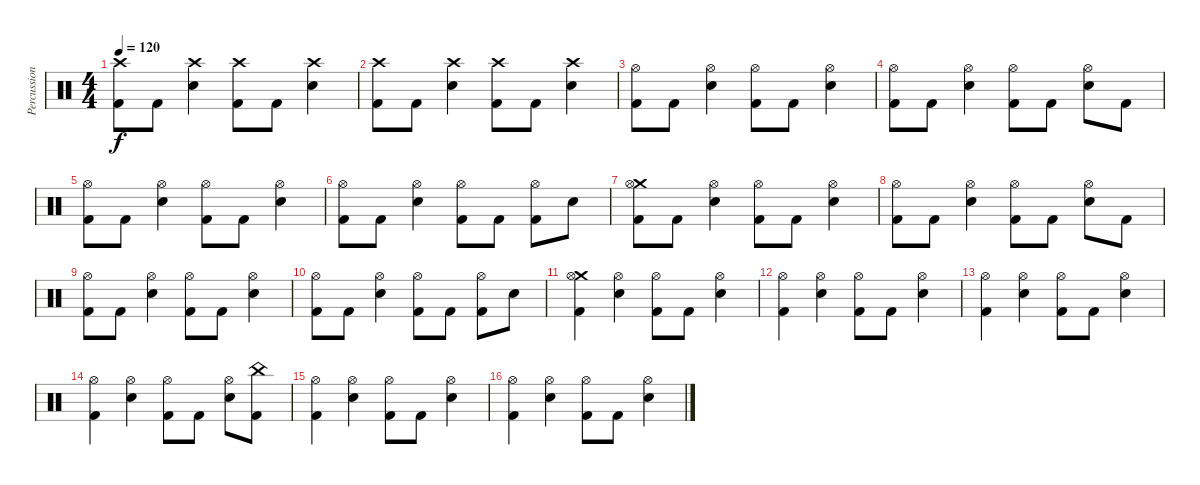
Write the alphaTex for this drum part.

\track ("Percussion" "Percussion") {instrument percussion}
\staff {score}
\articulation defaults
\ts (4 4)
\tempo 120
\clef neutral
\ks c
("Crash high (hit)" "Kick (hit) 2").8{dy f} "Kick (hit) 2".8 ("Crash high (hit)" "Snare (hit) 2").4 ("Crash high (hit)" "Kick (hit) 2").8 "Kick (hit) 2".8 ("Crash high (hit)" "Snare (hit) 2").4 |
("Crash high (hit)" "Kick (hit) 2").8 "Kick (hit) 2".8 ("Crash high (hit)" "Snare (hit) 2").4 ("Crash high (hit)" "Kick (hit) 2").8 "Kick (hit) 2".8 ("Crash high (hit)" "Snare (hit) 2").4 |
("Hi-Hat (open)" "Kick (hit) 2").8 "Kick (hit) 2".8 ("Hi-Hat (open)" "Snare (hit) 2").4 ("Hi-Hat (open)" "Kick (hit) 2").8 "Kick (hit) 2".8 ("Hi-Hat (open)" "Snare (hit) 2").4 |
("Hi-Hat (open)" "Kick (hit) 2").8 "Kick (hit) 2".8 ("Hi-Hat (open)" "Snare (hit) 2").4 ("Hi-Hat (open)" "Kick (hit) 2").8 "Kick (hit) 2".8 ("Hi-Hat (open)" "Snare (hit) 2").8 "Kick (hit) 2".8 |
("Hi-Hat (open)" "Kick (hit) 2").8 "Kick (hit) 2".8 ("Hi-Hat (open)" "Snare (hit) 2").4 ("Hi-Hat (open)" "Kick (hit) 2").8 "Kick (hit) 2".8 ("Hi-Hat (open)" "Snare (hit) 2").4 |
("Hi-Hat (open)" "Kick (hit) 2").8 "Kick (hit) 2".8 ("Hi-Hat (open)" "Snare (hit) 2").4 ("Hi-Hat (open)" "Kick (hit) 2").8 "Kick (hit) 2".8 ("Hi-Hat (open)" "Kick (hit) 2").8 "Snare (hit) 2".8 |
("Crash medium (hit)" "Hi-Hat (open)" "Kick (hit) 2").8 "Kick (hit) 2".8 ("Hi-Hat (open)" "Snare (hit) 2").4 ("Hi-Hat (open)" "Kick (hit) 2").8 "Kick (hit) 2".8 ("Hi-Hat (open)" "Snare (hit) 2").4 |
("Hi-Hat (open)" "Kick (hit) 2").8 "Kick (hit) 2".8 ("Hi-Hat (open)" "Snare (hit) 2").4 ("Hi-Hat (open)" "Kick (hit) 2").8 "Kick (hit) 2".8 ("Hi-Hat (open)" "Snare (hit) 2").8 "Kick (hit) 2".8 |
("Hi-Hat (open)" "Kick (hit) 2").8 "Kick (hit) 2".8 ("Hi-Hat (open)" "Snare (hit) 2").4 ("Hi-Hat (open)" "Kick (hit) 2").8 "Kick (hit) 2".8 ("Hi-Hat (open)" "Snare (hit) 2").4 |
("Hi-Hat (open)" "Kick (hit) 2").8 "Kick (hit) 2".8 ("Hi-Hat (open)" "Snare (hit) 2").4 ("Hi-Hat (open)" "Kick (hit) 2").8 "Kick (hit) 2".8 ("Hi-Hat (open)" "Kick (hit) 2").8 "Snare (hit) 2".8 |
("Crash medium (hit)" "Hi-Hat (open)" "Kick (hit) 2").4 ("Hi-Hat (open)" "Snare (hit) 2").4 ("Hi-Hat (open)" "Kick (hit) 2").8 "Kick (hit) 2".8 ("Hi-Hat (open)" "Snare (hit) 2").4 |
("Hi-Hat (open)" "Kick (hit) 2").4 ("Hi-Hat (open)" "Snare (hit) 2").4 ("Hi-Hat (open)" "Kick (hit) 2").8 "Kick (hit) 2".8 ("Hi-Hat (open)" "Snare (hit) 2").4 |
("Hi-Hat (open)" "Kick (hit) 2").4 ("Hi-Hat (open)" "Snare (hit) 2").4 ("Hi-Hat (open)" "Kick (hit) 2").8 "Kick (hit) 2".8 ("Hi-Hat (open)" "Snare (hit) 2").4 |
("Hi-Hat (open)" "Kick (hit) 2").4 ("Hi-Hat (open)" "Snare (hit) 2").4 ("Hi-Hat (open)" "Kick (hit) 2").8 "Kick (hit) 2".8 ("Hi-Hat (open)" "Snare (hit) 2").8 ("China (hit)" "Kick (hit) 2").8 |
("Hi-Hat (open)" "Kick (hit) 2").4 ("Hi-Hat (open)" "Snare (hit) 2").4 ("Hi-Hat (open)" "Kick (hit) 2").8 "Kick (hit) 2".8 ("Hi-Hat (open)" "Snare (hit) 2").4 |
("Hi-Hat (open)" "Kick (hit) 2").4 ("Hi-Hat (open)" "Snare (hit) 2").4 ("Hi-Hat (open)" "Kick (hit) 2").8 "Kick (hit) 2".8 ("Hi-Hat (open)" "Snare (hit) 2").4
